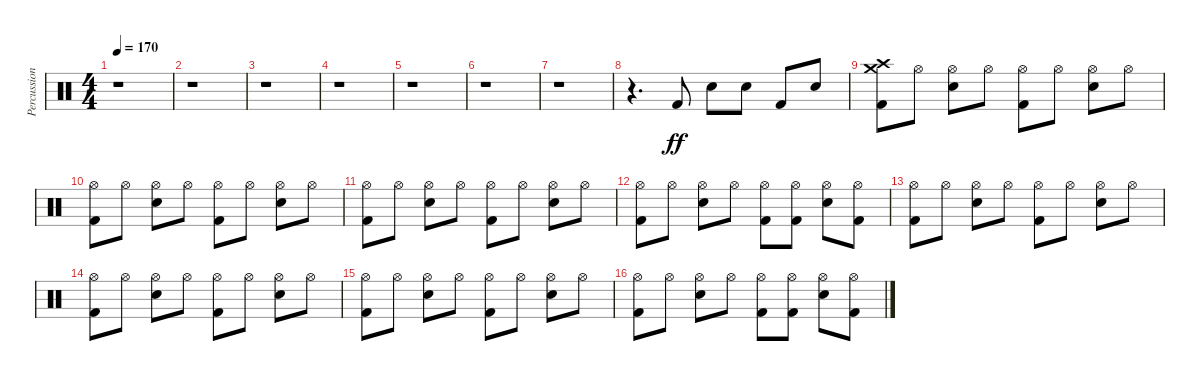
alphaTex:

\track ("Percussion" "Percussion") {instrument percussion}
\staff {score}
\articulation defaults
\ts (4 4)
\tempo 170
\clef neutral
\ks c
r.1{dy ff} |
r.1 |
r.1 |
r.1 |
r.1 |
r.1 |
r.1 |
r.4{d} "Kick (hit) 2".8 "Electric Snare (hit)".8 "Electric Snare (hit)".8 "Kick (hit) 2".8 "Electric Snare (hit)".8 |
("Kick (hit) 2" "Crash medium (hit)" "Crash high (hit)").8 "Hi-Hat (open)".8 ("Electric Snare (hit)" "Hi-Hat (open)").8 "Hi-Hat (open)".8 ("Kick (hit) 2" "Hi-Hat (open)").8 "Hi-Hat (open)".8 ("Electric Snare (hit)" "Hi-Hat (open)").8 "Hi-Hat (open)".8 |
("Kick (hit) 2" "Hi-Hat (open)").8 "Hi-Hat (open)".8 ("Electric Snare (hit)" "Hi-Hat (open)").8 "Hi-Hat (open)".8 ("Kick (hit) 2" "Hi-Hat (open)").8 "Hi-Hat (open)".8 ("Electric Snare (hit)" "Hi-Hat (open)").8 "Hi-Hat (open)".8 |
("Kick (hit) 2" "Hi-Hat (open)").8 "Hi-Hat (open)".8 ("Electric Snare (hit)" "Hi-Hat (open)").8 "Hi-Hat (open)".8 ("Kick (hit) 2" "Hi-Hat (open)").8 "Hi-Hat (open)".8 ("Electric Snare (hit)" "Hi-Hat (open)").8 "Hi-Hat (open)".8 |
("Kick (hit) 2" "Hi-Hat (open)").8 "Hi-Hat (open)".8 ("Electric Snare (hit)" "Hi-Hat (open)").8 "Hi-Hat (open)".8 ("Kick (hit) 2" "Hi-Hat (open)").8 ("Kick (hit) 2" "Hi-Hat (open)").8 ("Electric Snare (hit)" "Hi-Hat (open)").8 ("Kick (hit) 2" "Hi-Hat (open)").8 |
("Kick (hit) 2" "Hi-Hat (open)").8 "Hi-Hat (open)".8 ("Electric Snare (hit)" "Hi-Hat (open)").8 "Hi-Hat (open)".8 ("Kick (hit) 2" "Hi-Hat (open)").8 "Hi-Hat (open)".8 ("Electric Snare (hit)" "Hi-Hat (open)").8 "Hi-Hat (open)".8 |
("Kick (hit) 2" "Hi-Hat (open)").8 "Hi-Hat (open)".8 ("Electric Snare (hit)" "Hi-Hat (open)").8 "Hi-Hat (open)".8 ("Kick (hit) 2" "Hi-Hat (open)").8 "Hi-Hat (open)".8 ("Electric Snare (hit)" "Hi-Hat (open)").8 "Hi-Hat (open)".8 |
("Kick (hit) 2" "Hi-Hat (open)").8 "Hi-Hat (open)".8 ("Electric Snare (hit)" "Hi-Hat (open)").8 "Hi-Hat (open)".8 ("Kick (hit) 2" "Hi-Hat (open)").8 "Hi-Hat (open)".8 ("Electric Snare (hit)" "Hi-Hat (open)").8 "Hi-Hat (open)".8 |
("Kick (hit) 2" "Hi-Hat (open)").8 "Hi-Hat (open)".8 ("Electric Snare (hit)" "Hi-Hat (open)").8 "Hi-Hat (open)".8 ("Kick (hit) 2" "Hi-Hat (open)").8 ("Kick (hit) 2" "Hi-Hat (open)").8 ("Electric Snare (hit)" "Hi-Hat (open)").8 ("Kick (hit) 2" "Hi-Hat (open)").8
